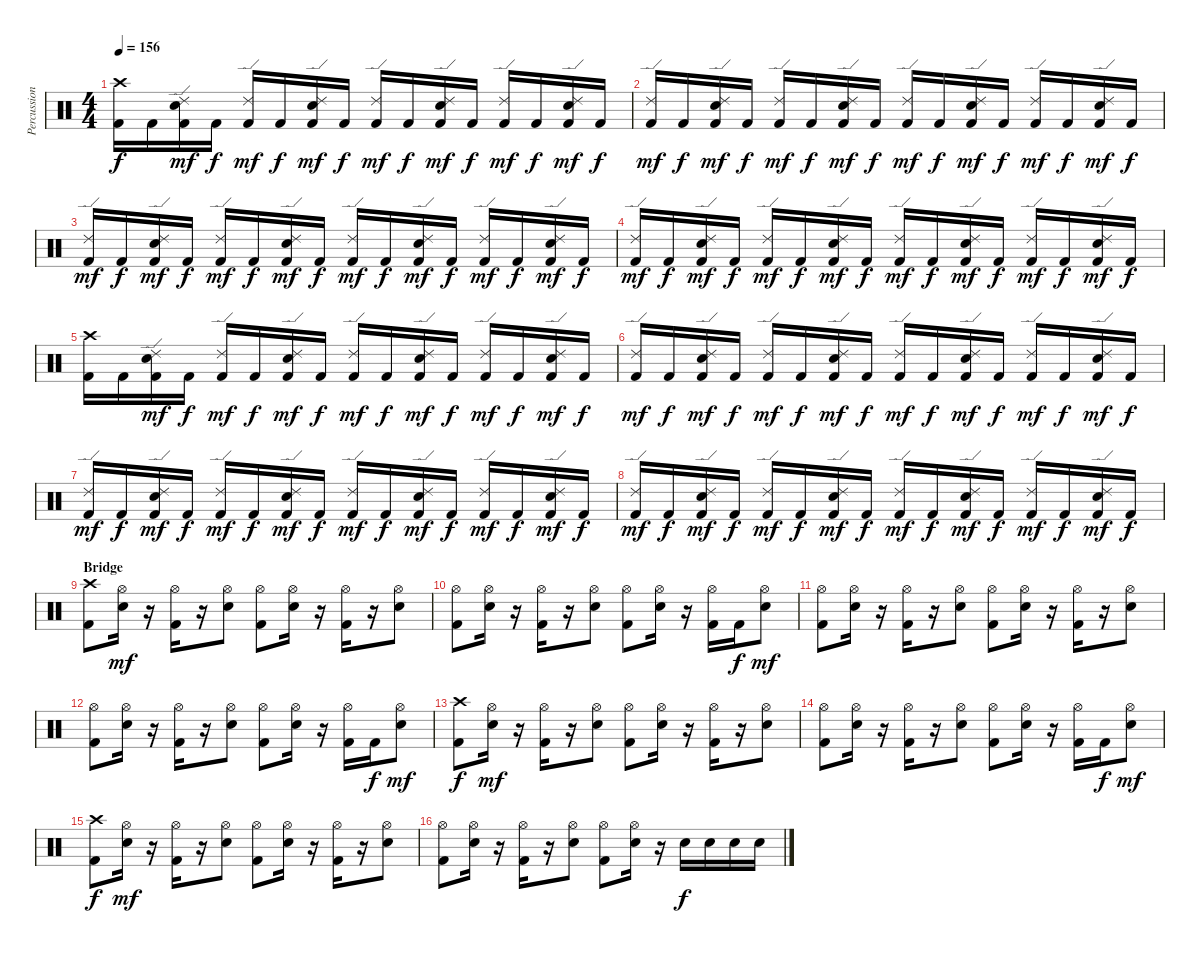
\track ("Percussion" "Percussion") {instrument percussion}
\staff {score}
\articulation defaults
\ts (4 4)
\tempo 156
\clef neutral
\ks c
("Crash high (hit)" "Kick (hit) 2").16{dy f} "Kick (hit) 2".16 ("Ride (edge) 2" "Electric Snare (hit)" "Kick (hit) 2").16{dy mf} "Kick (hit) 2".16{dy f} ("Ride (edge) 2" "Kick (hit) 2").16{dy mf} "Kick (hit) 2".16{dy f} ("Ride (edge) 2" "Electric Snare (hit)" "Kick (hit) 2").16{dy mf} "Kick (hit) 2".16{dy f} ("Ride (edge) 2" "Kick (hit) 2").16{dy mf} "Kick (hit) 2".16{dy f} ("Ride (edge) 2" "Electric Snare (hit)" "Kick (hit) 2").16{dy mf} "Kick (hit) 2".16{dy f} ("Ride (edge) 2" "Kick (hit) 2").16{dy mf} "Kick (hit) 2".16{dy f} ("Ride (edge) 2" "Electric Snare (hit)" "Kick (hit) 2").16{dy mf} "Kick (hit) 2".16{dy f} |
("Ride (edge) 2" "Kick (hit) 2").16{dy mf} "Kick (hit) 2".16{dy f} ("Ride (edge) 2" "Electric Snare (hit)" "Kick (hit) 2").16{dy mf} "Kick (hit) 2".16{dy f} ("Ride (edge) 2" "Kick (hit) 2").16{dy mf} "Kick (hit) 2".16{dy f} ("Ride (edge) 2" "Electric Snare (hit)" "Kick (hit) 2").16{dy mf} "Kick (hit) 2".16{dy f} ("Ride (edge) 2" "Kick (hit) 2").16{dy mf} "Kick (hit) 2".16{dy f} ("Ride (edge) 2" "Electric Snare (hit)" "Kick (hit) 2").16{dy mf} "Kick (hit) 2".16{dy f} ("Ride (edge) 2" "Kick (hit) 2").16{dy mf} "Kick (hit) 2".16{dy f} ("Ride (edge) 2" "Electric Snare (hit)" "Kick (hit) 2").16{dy mf} "Kick (hit) 2".16{dy f} |
("Ride (edge) 2" "Kick (hit) 2").16{dy mf} "Kick (hit) 2".16{dy f} ("Ride (edge) 2" "Electric Snare (hit)" "Kick (hit) 2").16{dy mf} "Kick (hit) 2".16{dy f} ("Ride (edge) 2" "Kick (hit) 2").16{dy mf} "Kick (hit) 2".16{dy f} ("Ride (edge) 2" "Electric Snare (hit)" "Kick (hit) 2").16{dy mf} "Kick (hit) 2".16{dy f} ("Ride (edge) 2" "Kick (hit) 2").16{dy mf} "Kick (hit) 2".16{dy f} ("Ride (edge) 2" "Electric Snare (hit)" "Kick (hit) 2").16{dy mf} "Kick (hit) 2".16{dy f} ("Ride (edge) 2" "Kick (hit) 2").16{dy mf} "Kick (hit) 2".16{dy f} ("Ride (edge) 2" "Electric Snare (hit)" "Kick (hit) 2").16{dy mf} "Kick (hit) 2".16{dy f} |
("Ride (edge) 2" "Kick (hit) 2").16{dy mf} "Kick (hit) 2".16{dy f} ("Ride (edge) 2" "Electric Snare (hit)" "Kick (hit) 2").16{dy mf} "Kick (hit) 2".16{dy f} ("Ride (edge) 2" "Kick (hit) 2").16{dy mf} "Kick (hit) 2".16{dy f} ("Ride (edge) 2" "Electric Snare (hit)" "Kick (hit) 2").16{dy mf} "Kick (hit) 2".16{dy f} ("Ride (edge) 2" "Kick (hit) 2").16{dy mf} "Kick (hit) 2".16{dy f} ("Ride (edge) 2" "Electric Snare (hit)" "Kick (hit) 2").16{dy mf} "Kick (hit) 2".16{dy f} ("Ride (edge) 2" "Kick (hit) 2").16{dy mf} "Kick (hit) 2".16{dy f} ("Ride (edge) 2" "Electric Snare (hit)" "Kick (hit) 2").16{dy mf} "Kick (hit) 2".16{dy f} |
("Crash high (hit)" "Kick (hit) 2").16 "Kick (hit) 2".16 ("Ride (edge) 2" "Electric Snare (hit)" "Kick (hit) 2").16{dy mf} "Kick (hit) 2".16{dy f} ("Ride (edge) 2" "Kick (hit) 2").16{dy mf} "Kick (hit) 2".16{dy f} ("Ride (edge) 2" "Electric Snare (hit)" "Kick (hit) 2").16{dy mf} "Kick (hit) 2".16{dy f} ("Ride (edge) 2" "Kick (hit) 2").16{dy mf} "Kick (hit) 2".16{dy f} ("Ride (edge) 2" "Electric Snare (hit)" "Kick (hit) 2").16{dy mf} "Kick (hit) 2".16{dy f} ("Ride (edge) 2" "Kick (hit) 2").16{dy mf} "Kick (hit) 2".16{dy f} ("Ride (edge) 2" "Electric Snare (hit)" "Kick (hit) 2").16{dy mf} "Kick (hit) 2".16{dy f} |
("Ride (edge) 2" "Kick (hit) 2").16{dy mf} "Kick (hit) 2".16{dy f} ("Ride (edge) 2" "Electric Snare (hit)" "Kick (hit) 2").16{dy mf} "Kick (hit) 2".16{dy f} ("Ride (edge) 2" "Kick (hit) 2").16{dy mf} "Kick (hit) 2".16{dy f} ("Ride (edge) 2" "Electric Snare (hit)" "Kick (hit) 2").16{dy mf} "Kick (hit) 2".16{dy f} ("Ride (edge) 2" "Kick (hit) 2").16{dy mf} "Kick (hit) 2".16{dy f} ("Ride (edge) 2" "Electric Snare (hit)" "Kick (hit) 2").16{dy mf} "Kick (hit) 2".16{dy f} ("Ride (edge) 2" "Kick (hit) 2").16{dy mf} "Kick (hit) 2".16{dy f} ("Ride (edge) 2" "Electric Snare (hit)" "Kick (hit) 2").16{dy mf} "Kick (hit) 2".16{dy f} |
("Ride (edge) 2" "Kick (hit) 2").16{dy mf} "Kick (hit) 2".16{dy f} ("Ride (edge) 2" "Electric Snare (hit)" "Kick (hit) 2").16{dy mf} "Kick (hit) 2".16{dy f} ("Ride (edge) 2" "Kick (hit) 2").16{dy mf} "Kick (hit) 2".16{dy f} ("Ride (edge) 2" "Electric Snare (hit)" "Kick (hit) 2").16{dy mf} "Kick (hit) 2".16{dy f} ("Ride (edge) 2" "Kick (hit) 2").16{dy mf} "Kick (hit) 2".16{dy f} ("Ride (edge) 2" "Electric Snare (hit)" "Kick (hit) 2").16{dy mf} "Kick (hit) 2".16{dy f} ("Ride (edge) 2" "Kick (hit) 2").16{dy mf} "Kick (hit) 2".16{dy f} ("Ride (edge) 2" "Electric Snare (hit)" "Kick (hit) 2").16{dy mf} "Kick (hit) 2".16{dy f} |
("Ride (edge) 2" "Kick (hit) 2").16{dy mf} "Kick (hit) 2".16{dy f} ("Ride (edge) 2" "Electric Snare (hit)" "Kick (hit) 2").16{dy mf} "Kick (hit) 2".16{dy f} ("Ride (edge) 2" "Kick (hit) 2").16{dy mf} "Kick (hit) 2".16{dy f} ("Ride (edge) 2" "Electric Snare (hit)" "Kick (hit) 2").16{dy mf} "Kick (hit) 2".16{dy f} ("Ride (edge) 2" "Kick (hit) 2").16{dy mf} "Kick (hit) 2".16{dy f} ("Ride (edge) 2" "Electric Snare (hit)" "Kick (hit) 2").16{dy mf} "Kick (hit) 2".16{dy f} ("Ride (edge) 2" "Kick (hit) 2").16{dy mf} "Kick (hit) 2".16{dy f} ("Ride (edge) 2" "Electric Snare (hit)" "Kick (hit) 2").16{dy mf} "Kick (hit) 2".16{dy f} |
\section ("" "Bridge")
("Crash high (hit)" "Kick (hit) 2").8 ("Hi-Hat (open)" "Electric Snare (hit)").16{dy mf} r.16 ("Hi-Hat (open)" "Kick (hit) 2").16 r.16 ("Hi-Hat (open)" "Electric Snare (hit)").8 ("Hi-Hat (open)" "Kick (hit) 2").8 ("Hi-Hat (open)" "Electric Snare (hit)").16 r.16 ("Hi-Hat (open)" "Kick (hit) 2").16 r.16 ("Hi-Hat (open)" "Electric Snare (hit)").8 |
("Hi-Hat (open)" "Kick (hit) 2").8 ("Hi-Hat (open)" "Electric Snare (hit)").16 r.16 ("Hi-Hat (open)" "Kick (hit) 2").16 r.16 ("Hi-Hat (open)" "Electric Snare (hit)").8 ("Hi-Hat (open)" "Kick (hit) 2").8 ("Hi-Hat (open)" "Electric Snare (hit)").16 r.16 ("Hi-Hat (open)" "Kick (hit) 2").16 "Kick (hit) 2".16{dy f} ("Hi-Hat (open)" "Electric Snare (hit)").8{dy mf} |
("Hi-Hat (open)" "Kick (hit) 2").8 ("Hi-Hat (open)" "Electric Snare (hit)").16 r.16 ("Hi-Hat (open)" "Kick (hit) 2").16 r.16 ("Hi-Hat (open)" "Electric Snare (hit)").8 ("Hi-Hat (open)" "Kick (hit) 2").8 ("Hi-Hat (open)" "Electric Snare (hit)").16 r.16 ("Hi-Hat (open)" "Kick (hit) 2").16 r.16 ("Hi-Hat (open)" "Electric Snare (hit)").8 |
("Hi-Hat (open)" "Kick (hit) 2").8 ("Hi-Hat (open)" "Electric Snare (hit)").16 r.16 ("Hi-Hat (open)" "Kick (hit) 2").16 r.16 ("Hi-Hat (open)" "Electric Snare (hit)").8 ("Hi-Hat (open)" "Kick (hit) 2").8 ("Hi-Hat (open)" "Electric Snare (hit)").16 r.16 ("Hi-Hat (open)" "Kick (hit) 2").16 "Kick (hit) 2".16{dy f} ("Hi-Hat (open)" "Electric Snare (hit)").8{dy mf} |
("Crash high (hit)" "Kick (hit) 2").8{dy f} ("Hi-Hat (open)" "Electric Snare (hit)").16{dy mf} r.16 ("Hi-Hat (open)" "Kick (hit) 2").16 r.16 ("Hi-Hat (open)" "Electric Snare (hit)").8 ("Hi-Hat (open)" "Kick (hit) 2").8 ("Hi-Hat (open)" "Electric Snare (hit)").16 r.16 ("Hi-Hat (open)" "Kick (hit) 2").16 r.16 ("Hi-Hat (open)" "Electric Snare (hit)").8 |
("Hi-Hat (open)" "Kick (hit) 2").8 ("Hi-Hat (open)" "Electric Snare (hit)").16 r.16 ("Hi-Hat (open)" "Kick (hit) 2").16 r.16 ("Hi-Hat (open)" "Electric Snare (hit)").8 ("Hi-Hat (open)" "Kick (hit) 2").8 ("Hi-Hat (open)" "Electric Snare (hit)").16 r.16 ("Hi-Hat (open)" "Kick (hit) 2").16 "Kick (hit) 2".16{dy f} ("Hi-Hat (open)" "Electric Snare (hit)").8{dy mf} |
("Crash high (hit)" "Kick (hit) 2").8{dy f} ("Hi-Hat (open)" "Electric Snare (hit)").16{dy mf} r.16 ("Hi-Hat (open)" "Kick (hit) 2").16 r.16 ("Hi-Hat (open)" "Electric Snare (hit)").8 ("Hi-Hat (open)" "Kick (hit) 2").8 ("Hi-Hat (open)" "Electric Snare (hit)").16 r.16 ("Hi-Hat (open)" "Kick (hit) 2").16 r.16 ("Hi-Hat (open)" "Electric Snare (hit)").8 |
("Hi-Hat (open)" "Kick (hit) 2").8 ("Hi-Hat (open)" "Electric Snare (hit)").16 r.16 ("Hi-Hat (open)" "Kick (hit) 2").16 r.16 ("Hi-Hat (open)" "Electric Snare (hit)").8 ("Hi-Hat (open)" "Kick (hit) 2").8 ("Hi-Hat (open)" "Electric Snare (hit)").16 r.16 "Electric Snare (hit)".16{dy f} "Electric Snare (hit)".16 "Electric Snare (hit)".16 "Electric Snare (hit)".16
